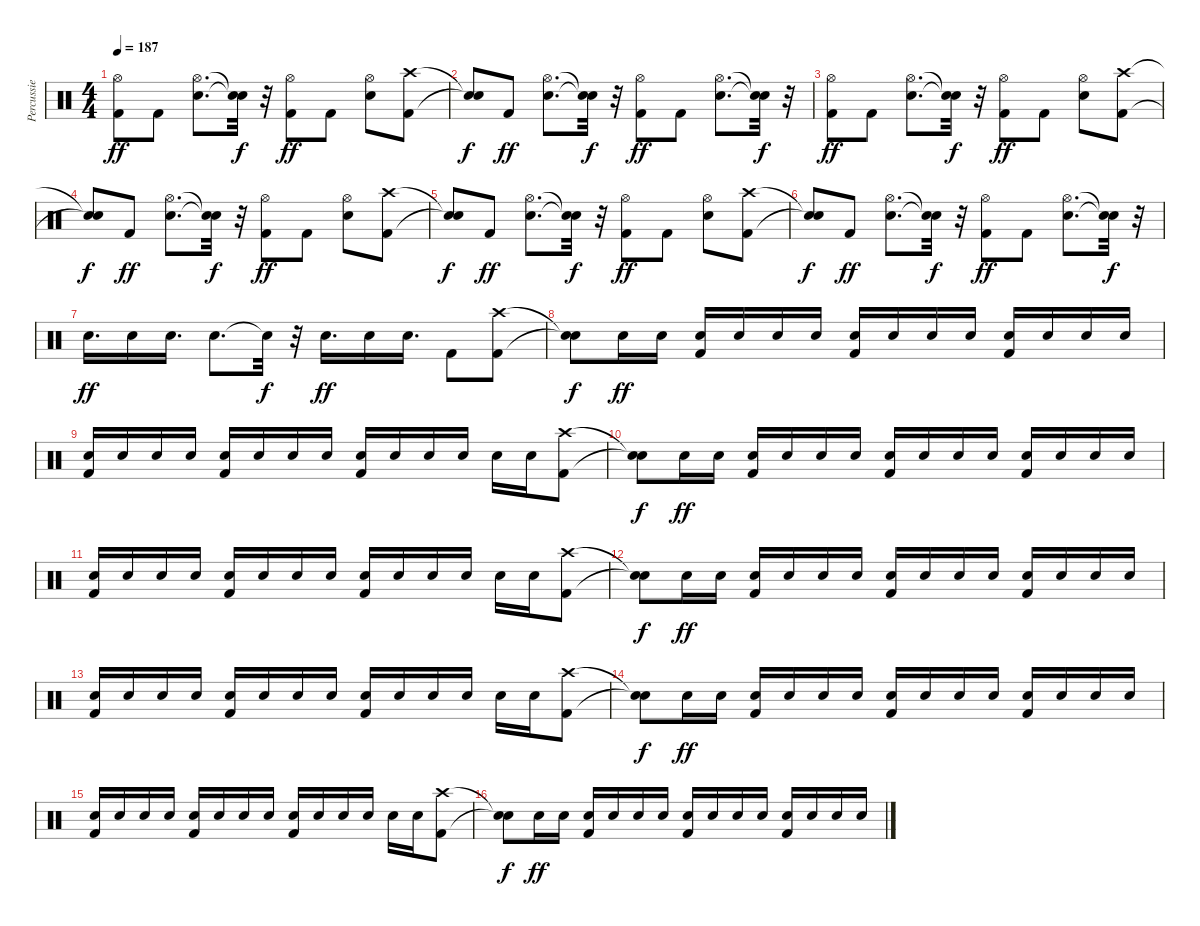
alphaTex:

\track ("Percussie" "Percussie") {instrument percussion}
\staff {score}
\articulation defaults
\ts (4 4)
\tempo 187
\clef neutral
\ks c
("Kick (hit) 2" "Hi-Hat (open)").8{dy ff} "Kick (hit) 2".8 ("Snare (hit) 2" "Hi-Hat (open)").8{d} ("Snare (hit)"{t} "Snare (hit)"{t}).32{dy f} r.32 ("Kick (hit) 2" "Hi-Hat (open)").8{dy ff} "Kick (hit) 2".8 ("Snare (hit) 2" "Hi-Hat (open)").8 ("Kick (hit) 2" "Crash high (hit)").8 |
("Snare (hit)"{t} "Snare (hit)"{t}).8{dy f} "Kick (hit) 2".8{dy ff} ("Snare (hit) 2" "Hi-Hat (open)").8{d} ("Snare (hit)"{t} "Snare (hit)"{t}).32{dy f} r.32 ("Kick (hit) 2" "Hi-Hat (open)").8{dy ff} "Kick (hit) 2".8 ("Snare (hit) 2" "Hi-Hat (open)").8{d} ("Snare (hit)"{t} "Snare (hit)"{t}).32{dy f} r.32 |
("Kick (hit) 2" "Hi-Hat (open)").8{dy ff} "Kick (hit) 2".8 ("Snare (hit) 2" "Hi-Hat (open)").8{d} ("Snare (hit)"{t} "Snare (hit)"{t}).32{dy f} r.32 ("Kick (hit) 2" "Hi-Hat (open)").8{dy ff} "Kick (hit) 2".8 ("Snare (hit) 2" "Hi-Hat (open)").8 ("Kick (hit) 2" "Crash high (hit)").8 |
("Snare (hit)"{t} "Snare (hit)"{t}).8{dy f} "Kick (hit) 2".8{dy ff} ("Snare (hit) 2" "Hi-Hat (open)").8{d} ("Snare (hit)"{t} "Snare (hit)"{t}).32{dy f} r.32 ("Kick (hit) 2" "Hi-Hat (open)").8{dy ff} "Kick (hit) 2".8 ("Snare (hit) 2" "Hi-Hat (open)").8 ("Kick (hit) 2" "Crash high (hit)").8 |
("Snare (hit)"{t} "Snare (hit)"{t}).8{dy f} "Kick (hit) 2".8{dy ff} ("Snare (hit) 2" "Hi-Hat (open)").8{d} ("Snare (hit)"{t} "Snare (hit)"{t}).32{dy f} r.32 ("Kick (hit) 2" "Hi-Hat (open)").8{dy ff} "Kick (hit) 2".8 ("Snare (hit) 2" "Hi-Hat (open)").8 ("Kick (hit) 2" "Crash high (hit)").8 |
("Snare (hit)"{t} "Snare (hit)"{t}).8{dy f} "Kick (hit) 2".8{dy ff} ("Snare (hit) 2" "Hi-Hat (open)").8{d} ("Snare (hit)"{t} "Snare (hit)"{t}).32{dy f} r.32 ("Kick (hit) 2" "Hi-Hat (open)").8{dy ff} "Kick (hit) 2".8 ("Snare (hit) 2" "Hi-Hat (open)").8{d} ("Snare (hit)"{t} "Snare (hit)"{t}).32{dy f} r.32 |
"Snare (hit) 2".16{d dy ff} "Snare (hit) 2".16 "Snare (hit) 2".16{d} "Snare (hit) 2".8{d} "Snare (hit)"{t}.32{dy f} r.32 "Snare (hit) 2".16{d dy ff} "Snare (hit) 2".16 "Snare (hit) 2".16{d} "Kick (hit) 2".8 ("Kick (hit) 2" "Crash high (hit)").8 |
("Snare (hit)"{t} "Snare (hit)"{t}).8{dy f} "Snare (hit) 2".16{dy ff volume 5} "Snare (hit) 2".16 ("Kick (hit) 2" "Snare (hit) 2").16{volume 16} "Snare (hit) 2".16{volume 5} "Snare (hit) 2".16 "Snare (hit) 2".16 ("Kick (hit) 2" "Snare (hit) 2").16{volume 16} "Snare (hit) 2".16{volume 5} "Snare (hit) 2".16 "Snare (hit) 2".16 ("Kick (hit) 2" "Snare (hit) 2").16{volume 16} "Snare (hit) 2".16{volume 5} "Snare (hit) 2".16 "Snare (hit) 2".16 |
("Kick (hit) 2" "Snare (hit) 2").16{volume 16} "Snare (hit) 2".16{volume 5} "Snare (hit) 2".16 "Snare (hit) 2".16 ("Kick (hit) 2" "Snare (hit) 2").16{volume 16} "Snare (hit) 2".16{volume 5} "Snare (hit) 2".16 "Snare (hit) 2".16 ("Kick (hit) 2" "Snare (hit) 2").16{volume 16} "Snare (hit) 2".16{volume 5} "Snare (hit) 2".16 "Snare (hit) 2".16 "Snare (hit) 2".16{volume 16} "Snare (hit) 2".16 ("Kick (hit) 2" "Crash high (hit)").8 |
("Snare (hit)"{t} "Snare (hit)"{t}).8{dy f} "Snare (hit) 2".16{dy ff volume 5} "Snare (hit) 2".16 ("Kick (hit) 2" "Snare (hit) 2").16{volume 16} "Snare (hit) 2".16{volume 5} "Snare (hit) 2".16 "Snare (hit) 2".16 ("Kick (hit) 2" "Snare (hit) 2").16{volume 16} "Snare (hit) 2".16{volume 5} "Snare (hit) 2".16 "Snare (hit) 2".16 ("Kick (hit) 2" "Snare (hit) 2").16{volume 16} "Snare (hit) 2".16{volume 5} "Snare (hit) 2".16 "Snare (hit) 2".16 |
("Kick (hit) 2" "Snare (hit) 2").16{volume 16} "Snare (hit) 2".16{volume 5} "Snare (hit) 2".16 "Snare (hit) 2".16 ("Kick (hit) 2" "Snare (hit) 2").16{volume 16} "Snare (hit) 2".16{volume 5} "Snare (hit) 2".16 "Snare (hit) 2".16 ("Kick (hit) 2" "Snare (hit) 2").16{volume 16} "Snare (hit) 2".16{volume 5} "Snare (hit) 2".16 "Snare (hit) 2".16 "Snare (hit) 2".16{volume 16} "Snare (hit) 2".16 ("Kick (hit) 2" "Crash high (hit)").8 |
("Snare (hit)"{t} "Snare (hit)"{t}).8{dy f} "Snare (hit) 2".16{dy ff volume 5} "Snare (hit) 2".16 ("Kick (hit) 2" "Snare (hit) 2").16{volume 16} "Snare (hit) 2".16{volume 5} "Snare (hit) 2".16 "Snare (hit) 2".16 ("Kick (hit) 2" "Snare (hit) 2").16{volume 16} "Snare (hit) 2".16{volume 5} "Snare (hit) 2".16 "Snare (hit) 2".16 ("Kick (hit) 2" "Snare (hit) 2").16{volume 16} "Snare (hit) 2".16{volume 5} "Snare (hit) 2".16 "Snare (hit) 2".16 |
("Kick (hit) 2" "Snare (hit) 2").16{volume 16} "Snare (hit) 2".16{volume 5} "Snare (hit) 2".16 "Snare (hit) 2".16 ("Kick (hit) 2" "Snare (hit) 2").16{volume 16} "Snare (hit) 2".16{volume 5} "Snare (hit) 2".16 "Snare (hit) 2".16 ("Kick (hit) 2" "Snare (hit) 2").16{volume 16} "Snare (hit) 2".16{volume 5} "Snare (hit) 2".16 "Snare (hit) 2".16 "Snare (hit) 2".16{volume 16} "Snare (hit) 2".16 ("Kick (hit) 2" "Crash high (hit)").8 |
("Snare (hit)"{t} "Snare (hit)"{t}).8{dy f} "Snare (hit) 2".16{dy ff volume 5} "Snare (hit) 2".16 ("Kick (hit) 2" "Snare (hit) 2").16{volume 16} "Snare (hit) 2".16{volume 5} "Snare (hit) 2".16 "Snare (hit) 2".16 ("Kick (hit) 2" "Snare (hit) 2").16{volume 16} "Snare (hit) 2".16{volume 5} "Snare (hit) 2".16 "Snare (hit) 2".16 ("Kick (hit) 2" "Snare (hit) 2").16{volume 16} "Snare (hit) 2".16{volume 5} "Snare (hit) 2".16 "Snare (hit) 2".16 |
("Kick (hit) 2" "Snare (hit) 2").16{volume 16} "Snare (hit) 2".16{volume 5} "Snare (hit) 2".16 "Snare (hit) 2".16 ("Kick (hit) 2" "Snare (hit) 2").16{volume 16} "Snare (hit) 2".16{volume 5} "Snare (hit) 2".16 "Snare (hit) 2".16 ("Kick (hit) 2" "Snare (hit) 2").16{volume 16} "Snare (hit) 2".16{volume 5} "Snare (hit) 2".16 "Snare (hit) 2".16 "Snare (hit) 2".16{volume 16} "Snare (hit) 2".16 ("Kick (hit) 2" "Crash high (hit)").8 |
("Snare (hit)"{t} "Snare (hit)"{t}).8{dy f} "Snare (hit) 2".16{dy ff volume 5} "Snare (hit) 2".16 ("Kick (hit) 2" "Snare (hit) 2").16{volume 16} "Snare (hit) 2".16{volume 5} "Snare (hit) 2".16 "Snare (hit) 2".16 ("Kick (hit) 2" "Snare (hit) 2").16{volume 16} "Snare (hit) 2".16{volume 5} "Snare (hit) 2".16 "Snare (hit) 2".16 ("Kick (hit) 2" "Snare (hit) 2").16{volume 16} "Snare (hit) 2".16{volume 5} "Snare (hit) 2".16 "Snare (hit) 2".16
